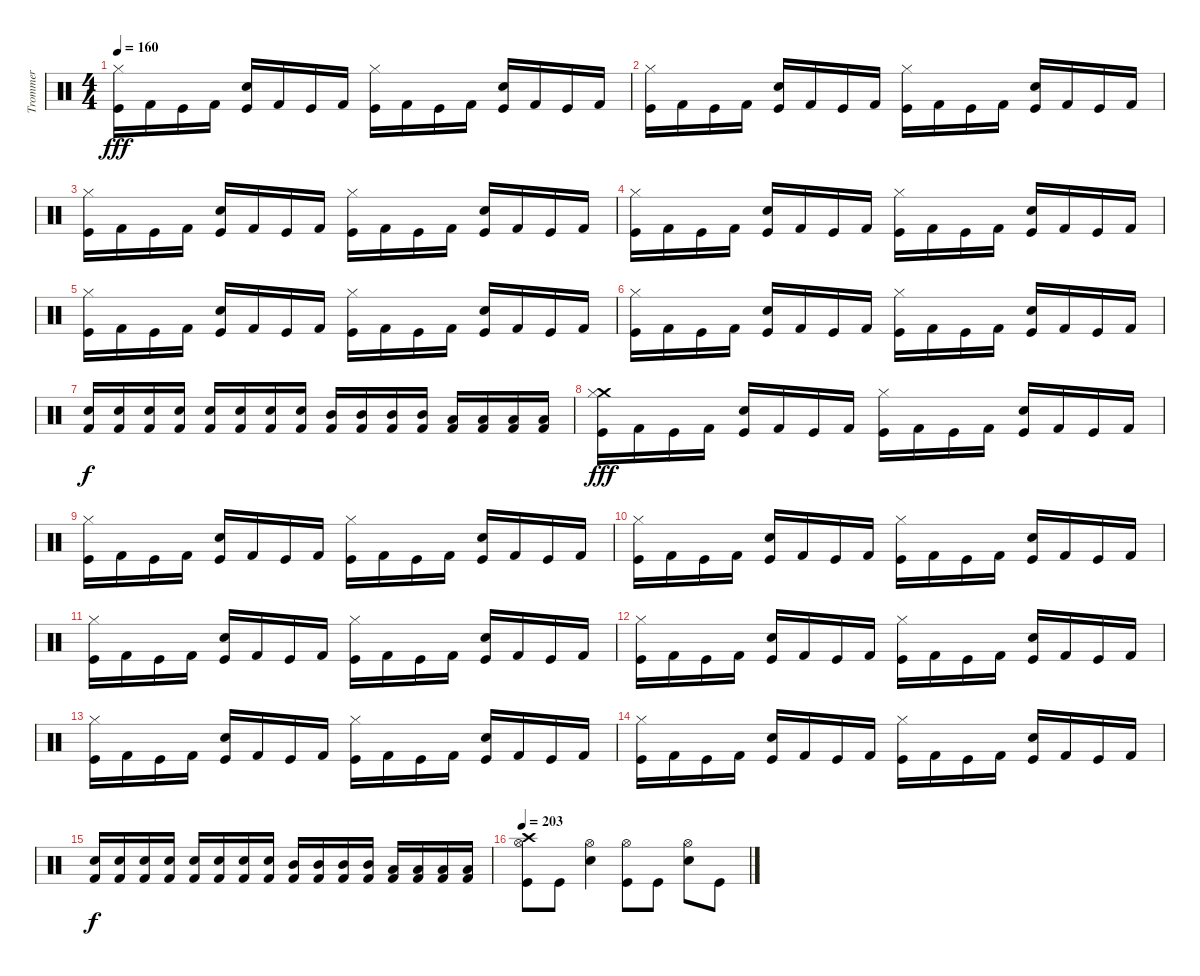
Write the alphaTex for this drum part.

\track ("Trommer" "Trommer") {instrument percussion}
\staff {score}
\articulation defaults
\ts (4 4)
\tempo 160
\clef neutral
\ks c
("Hi-Hat (closed)" "Kick (hit)").16{dy fff} "Kick (hit) 2".16 "Kick (hit)".16 "Kick (hit) 2".16 ("Snare (hit) 2" "Kick (hit)").16 "Kick (hit) 2".16 "Kick (hit)".16 "Kick (hit) 2".16 ("Hi-Hat (closed)" "Kick (hit)").16 "Kick (hit) 2".16 "Kick (hit)".16 "Kick (hit) 2".16 ("Snare (hit) 2" "Kick (hit)").16 "Kick (hit) 2".16 "Kick (hit)".16 "Kick (hit) 2".16 |
("Hi-Hat (closed)" "Kick (hit)").16 "Kick (hit) 2".16 "Kick (hit)".16 "Kick (hit) 2".16 ("Snare (hit) 2" "Kick (hit)").16 "Kick (hit) 2".16 "Kick (hit)".16 "Kick (hit) 2".16 ("Hi-Hat (closed)" "Kick (hit)").16 "Kick (hit) 2".16 "Kick (hit)".16 "Kick (hit) 2".16 ("Snare (hit) 2" "Kick (hit)").16 "Kick (hit) 2".16 "Kick (hit)".16 "Kick (hit) 2".16 |
("Hi-Hat (closed)" "Kick (hit)").16 "Kick (hit) 2".16 "Kick (hit)".16 "Kick (hit) 2".16 ("Snare (hit) 2" "Kick (hit)").16 "Kick (hit) 2".16 "Kick (hit)".16 "Kick (hit) 2".16 ("Hi-Hat (closed)" "Kick (hit)").16 "Kick (hit) 2".16 "Kick (hit)".16 "Kick (hit) 2".16 ("Snare (hit) 2" "Kick (hit)").16 "Kick (hit) 2".16 "Kick (hit)".16 "Kick (hit) 2".16 |
("Hi-Hat (closed)" "Kick (hit)").16 "Kick (hit) 2".16 "Kick (hit)".16 "Kick (hit) 2".16 ("Snare (hit) 2" "Kick (hit)").16 "Kick (hit) 2".16 "Kick (hit)".16 "Kick (hit) 2".16 ("Hi-Hat (closed)" "Kick (hit)").16 "Kick (hit) 2".16 "Kick (hit)".16 "Kick (hit) 2".16 ("Snare (hit) 2" "Kick (hit)").16 "Kick (hit) 2".16 "Kick (hit)".16 "Kick (hit) 2".16 |
("Hi-Hat (closed)" "Kick (hit)").16 "Kick (hit) 2".16 "Kick (hit)".16 "Kick (hit) 2".16 ("Snare (hit) 2" "Kick (hit)").16 "Kick (hit) 2".16 "Kick (hit)".16 "Kick (hit) 2".16 ("Hi-Hat (closed)" "Kick (hit)").16 "Kick (hit) 2".16 "Kick (hit)".16 "Kick (hit) 2".16 ("Snare (hit) 2" "Kick (hit)").16 "Kick (hit) 2".16 "Kick (hit)".16 "Kick (hit) 2".16 |
("Hi-Hat (closed)" "Kick (hit)").16 "Kick (hit) 2".16 "Kick (hit)".16 "Kick (hit) 2".16 ("Snare (hit) 2" "Kick (hit)").16 "Kick (hit) 2".16 "Kick (hit)".16 "Kick (hit) 2".16 ("Hi-Hat (closed)" "Kick (hit)").16 "Kick (hit) 2".16 "Kick (hit)".16 "Kick (hit) 2".16 ("Snare (hit) 2" "Kick (hit)").16 "Kick (hit) 2".16 "Kick (hit)".16 "Kick (hit) 2".16 |
("Snare (hit) 2" "Kick (hit) 2").16{dy f} ("Snare (hit) 2" "Kick (hit) 2").16 ("Snare (hit) 2" "Kick (hit) 2").16 ("Snare (hit) 2" "Kick (hit) 2").16 ("Snare (hit) 2" "Kick (hit) 2").16 ("Snare (hit) 2" "Kick (hit) 2").16 ("Snare (hit) 2" "Kick (hit) 2").16 ("Snare (hit) 2" "Kick (hit) 2").16 ("Mid Tom (hit)" "Kick (hit) 2").16 ("Mid Tom (hit)" "Kick (hit) 2").16 ("Mid Tom (hit)" "Kick (hit) 2").16 ("Mid Tom (hit)" "Kick (hit) 2").16 ("Low Tom (hit)" "Kick (hit) 2").16 ("Low Tom (hit)" "Kick (hit) 2").16 ("Low Tom (hit)" "Kick (hit) 2").16 ("Low Tom (hit)" "Kick (hit) 2").16 |
("Crash medium (hit)" "Hi-Hat (closed)" "Kick (hit)").16{dy fff} "Kick (hit) 2".16 "Kick (hit)".16 "Kick (hit) 2".16 ("Snare (hit) 2" "Kick (hit)").16 "Kick (hit) 2".16 "Kick (hit)".16 "Kick (hit) 2".16 ("Hi-Hat (closed)" "Kick (hit)").16 "Kick (hit) 2".16 "Kick (hit)".16 "Kick (hit) 2".16 ("Snare (hit) 2" "Kick (hit)").16 "Kick (hit) 2".16 "Kick (hit)".16 "Kick (hit) 2".16 |
("Hi-Hat (closed)" "Kick (hit)").16 "Kick (hit) 2".16 "Kick (hit)".16 "Kick (hit) 2".16 ("Snare (hit) 2" "Kick (hit)").16 "Kick (hit) 2".16 "Kick (hit)".16 "Kick (hit) 2".16 ("Hi-Hat (closed)" "Kick (hit)").16 "Kick (hit) 2".16 "Kick (hit)".16 "Kick (hit) 2".16 ("Snare (hit) 2" "Kick (hit)").16 "Kick (hit) 2".16 "Kick (hit)".16 "Kick (hit) 2".16 |
("Hi-Hat (closed)" "Kick (hit)").16 "Kick (hit) 2".16 "Kick (hit)".16 "Kick (hit) 2".16 ("Snare (hit) 2" "Kick (hit)").16 "Kick (hit) 2".16 "Kick (hit)".16 "Kick (hit) 2".16 ("Hi-Hat (closed)" "Kick (hit)").16 "Kick (hit) 2".16 "Kick (hit)".16 "Kick (hit) 2".16 ("Snare (hit) 2" "Kick (hit)").16 "Kick (hit) 2".16 "Kick (hit)".16 "Kick (hit) 2".16 |
("Hi-Hat (closed)" "Kick (hit)").16 "Kick (hit) 2".16 "Kick (hit)".16 "Kick (hit) 2".16 ("Snare (hit) 2" "Kick (hit)").16 "Kick (hit) 2".16 "Kick (hit)".16 "Kick (hit) 2".16 ("Hi-Hat (closed)" "Kick (hit)").16 "Kick (hit) 2".16 "Kick (hit)".16 "Kick (hit) 2".16 ("Snare (hit) 2" "Kick (hit)").16 "Kick (hit) 2".16 "Kick (hit)".16 "Kick (hit) 2".16 |
("Hi-Hat (closed)" "Kick (hit)").16 "Kick (hit) 2".16 "Kick (hit)".16 "Kick (hit) 2".16 ("Snare (hit) 2" "Kick (hit)").16 "Kick (hit) 2".16 "Kick (hit)".16 "Kick (hit) 2".16 ("Hi-Hat (closed)" "Kick (hit)").16 "Kick (hit) 2".16 "Kick (hit)".16 "Kick (hit) 2".16 ("Snare (hit) 2" "Kick (hit)").16 "Kick (hit) 2".16 "Kick (hit)".16 "Kick (hit) 2".16 |
("Hi-Hat (closed)" "Kick (hit)").16 "Kick (hit) 2".16 "Kick (hit)".16 "Kick (hit) 2".16 ("Snare (hit) 2" "Kick (hit)").16 "Kick (hit) 2".16 "Kick (hit)".16 "Kick (hit) 2".16 ("Hi-Hat (closed)" "Kick (hit)").16 "Kick (hit) 2".16 "Kick (hit)".16 "Kick (hit) 2".16 ("Snare (hit) 2" "Kick (hit)").16 "Kick (hit) 2".16 "Kick (hit)".16 "Kick (hit) 2".16 |
("Hi-Hat (closed)" "Kick (hit)").16 "Kick (hit) 2".16 "Kick (hit)".16 "Kick (hit) 2".16 ("Snare (hit) 2" "Kick (hit)").16 "Kick (hit) 2".16 "Kick (hit)".16 "Kick (hit) 2".16 ("Hi-Hat (closed)" "Kick (hit)").16 "Kick (hit) 2".16 "Kick (hit)".16 "Kick (hit) 2".16 ("Snare (hit) 2" "Kick (hit)").16 "Kick (hit) 2".16 "Kick (hit)".16 "Kick (hit) 2".16 |
("Snare (hit) 2" "Kick (hit) 2").16{dy f} ("Snare (hit) 2" "Kick (hit) 2").16 ("Snare (hit) 2" "Kick (hit) 2").16 ("Snare (hit) 2" "Kick (hit) 2").16 ("Snare (hit) 2" "Kick (hit) 2").16 ("Snare (hit) 2" "Kick (hit) 2").16 ("Snare (hit) 2" "Kick (hit) 2").16 ("Snare (hit) 2" "Kick (hit) 2").16 ("Mid Tom (hit)" "Kick (hit) 2").16 ("Mid Tom (hit)" "Kick (hit) 2").16 ("Mid Tom (hit)" "Kick (hit) 2").16 ("Mid Tom (hit)" "Kick (hit) 2").16 ("Low Tom (hit)" "Kick (hit) 2").16 ("Low Tom (hit)" "Kick (hit) 2").16 ("Low Tom (hit)" "Kick (hit) 2").16 ("Low Tom (hit)" "Kick (hit) 2").16 |
\tempo 203
("Hi-Hat (open)" "Kick (hit)" "Crash high (hit)").8 "Kick (hit)".8 ("Hi-Hat (open)" "Snare (hit) 2").4 ("Hi-Hat (open)" "Kick (hit)").8 "Kick (hit)".8 ("Snare (hit) 2" "Hi-Hat (open)").8 "Kick (hit)".8
